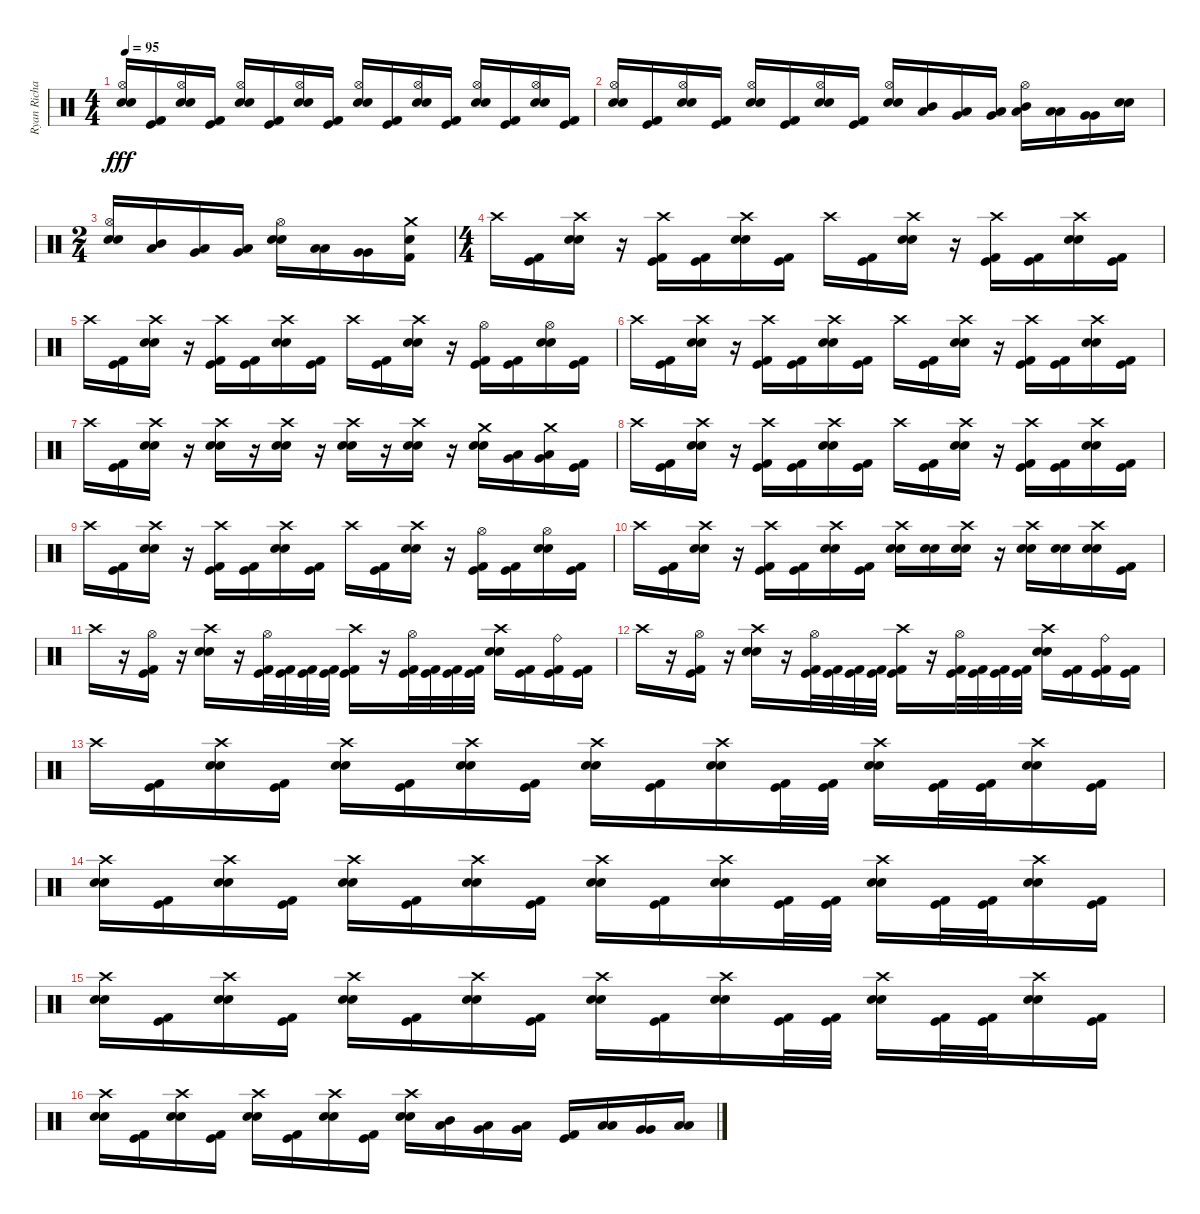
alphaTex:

\track ("Ryan Richards" "Ryan Richa") {instrument percussion}
\staff {score}
\articulation defaults
\ts (4 4)
\tempo 95
\clef neutral
\ks c
("Snare (hit) 2" "Hi-Hat (open)" "Electric Snare (hit)").16{dy fff} ("Kick (hit)" "Kick (hit) 2").16 ("Snare (hit) 2" "Hi-Hat (open)" "Electric Snare (hit)").16 ("Kick (hit)" "Kick (hit) 2").16 ("Snare (hit) 2" "Hi-Hat (open)" "Electric Snare (hit)").16 ("Kick (hit)" "Kick (hit) 2").16 ("Snare (hit) 2" "Hi-Hat (open)" "Electric Snare (hit)").16 ("Kick (hit)" "Kick (hit) 2").16 ("Snare (hit) 2" "Hi-Hat (open)" "Electric Snare (hit)").16 ("Kick (hit)" "Kick (hit) 2").16 ("Snare (hit) 2" "Hi-Hat (open)" "Electric Snare (hit)").16 ("Kick (hit)" "Kick (hit) 2").16 ("Snare (hit) 2" "Hi-Hat (open)" "Electric Snare (hit)").16 ("Kick (hit)" "Kick (hit) 2").16 ("Snare (hit) 2" "Hi-Hat (open)" "Electric Snare (hit)").16 ("Kick (hit)" "Kick (hit) 2").16 |
("Snare (hit) 2" "Hi-Hat (open)" "Electric Snare (hit)").16 ("Kick (hit)" "Kick (hit) 2").16 ("Snare (hit) 2" "Hi-Hat (open)" "Electric Snare (hit)").16 ("Kick (hit)" "Kick (hit) 2").16 ("Snare (hit) 2" "Hi-Hat (open)" "Electric Snare (hit)").16 ("Kick (hit)" "Kick (hit) 2").16 ("Snare (hit) 2" "Hi-Hat (open)" "Electric Snare (hit)").16 ("Kick (hit)" "Kick (hit) 2").16 ("Snare (hit) 2" "Hi-Hat (open)" "Electric Snare (hit)").16 ("Mid Tom (hit)" "Low Tom (hit)").16 ("Low Tom (hit)" "Very Low Tom (hit)").16 ("Very Low Tom (hit)" "Low Floor Tom (hit)").16 ("Mid Tom (hit)" "Hi-Hat (open)" "Low Tom (hit)").16 ("Low Tom (hit)" "Low Tom (hit)").16 ("Very Low Tom (hit)" "Very Low Tom (hit)").16 ("Snare (hit) 2" "Electric Snare (hit)").16 |
\ts (2 4)
("Snare (hit) 2" "Hi-Hat (open)" "Electric Snare (hit)").16 ("Mid Tom (hit)" "Low Tom (hit)").16 ("Low Tom (hit)" "Very Low Tom (hit)").16 ("Very Low Tom (hit)" "Low Floor Tom (hit)").16 ("Snare (hit) 2" "Hi-Hat (open)" "Electric Snare (hit)").16 ("Low Tom (hit)" "Low Tom (hit)").16 ("Very Low Tom (hit)" "Very Low Tom (hit)").16 ("Snare (hit) 2" "Crash medium (hit)" "Kick (hit) 2").16 |
\ts (4 4)
"Crash high (hit)".16 ("Kick (hit)" "Kick (hit) 2").16 ("Snare (hit) 2" "Crash high (hit)" "Electric Snare (hit)").16 r.16 ("Kick (hit)" "Crash high (hit)" "Kick (hit) 2").16 ("Kick (hit)" "Kick (hit) 2").16 ("Snare (hit) 2" "Crash high (hit)" "Electric Snare (hit)").16 ("Kick (hit)" "Kick (hit) 2").16 "Crash high (hit)".16 ("Kick (hit)" "Kick (hit) 2").16 ("Snare (hit) 2" "Crash high (hit)" "Electric Snare (hit)").16 r.16 ("Kick (hit)" "Crash high (hit)" "Kick (hit) 2").16 ("Kick (hit)" "Kick (hit) 2").16 ("Snare (hit) 2" "Crash high (hit)" "Electric Snare (hit)").16 ("Kick (hit)" "Kick (hit) 2").16 |
"Crash high (hit)".16 ("Kick (hit)" "Kick (hit) 2").16 ("Snare (hit) 2" "Crash high (hit)" "Electric Snare (hit)").16 r.16 ("Kick (hit)" "Crash high (hit)" "Kick (hit) 2").16 ("Kick (hit)" "Kick (hit) 2").16 ("Snare (hit) 2" "Crash high (hit)" "Electric Snare (hit)").16 ("Kick (hit)" "Kick (hit) 2").16 "Crash high (hit)".16 ("Kick (hit)" "Kick (hit) 2").16 ("Snare (hit) 2" "Crash high (hit)" "Electric Snare (hit)").16 r.16 ("Kick (hit)" "Hi-Hat (open)" "Kick (hit) 2").16 ("Kick (hit)" "Kick (hit) 2").16 ("Snare (hit) 2" "Hi-Hat (open)" "Electric Snare (hit)").16 ("Kick (hit)" "Kick (hit) 2").16 |
"Crash high (hit)".16 ("Kick (hit)" "Kick (hit) 2").16 ("Snare (hit) 2" "Crash high (hit)" "Electric Snare (hit)").16 r.16 ("Kick (hit)" "Crash high (hit)" "Kick (hit) 2").16 ("Kick (hit)" "Kick (hit) 2").16 ("Snare (hit) 2" "Crash high (hit)" "Electric Snare (hit)").16 ("Kick (hit)" "Kick (hit) 2").16 "Crash high (hit)".16 ("Kick (hit)" "Kick (hit) 2").16 ("Snare (hit) 2" "Crash high (hit)" "Electric Snare (hit)").16 r.16 ("Kick (hit)" "Crash high (hit)" "Kick (hit) 2").16 ("Kick (hit)" "Kick (hit) 2").16 ("Snare (hit) 2" "Crash high (hit)" "Electric Snare (hit)").16 ("Kick (hit)" "Kick (hit) 2").16 |
"Crash high (hit)".16 ("Kick (hit)" "Kick (hit) 2").16 ("Snare (hit) 2" "Crash high (hit)" "Electric Snare (hit)").16 r.16 ("Snare (hit) 2" "Crash high (hit)" "Electric Snare (hit)").16 r.16 ("Snare (hit) 2" "Crash high (hit)" "Electric Snare (hit)").16 r.16 ("Snare (hit) 2" "Crash high (hit)" "Electric Snare (hit)").16 r.16 ("Snare (hit) 2" "Crash high (hit)" "Electric Snare (hit)").16 r.16 ("Snare (hit) 2" "Crash medium (hit)" "Electric Snare (hit)").16 ("Low Tom (hit)" "Very Low Tom (hit)").16 ("Very Low Tom (hit)" "Crash medium (hit)" "Low Floor Tom (hit)").16 ("Kick (hit)" "Kick (hit) 2").16 |
"Crash high (hit)".16 ("Kick (hit)" "Kick (hit) 2").16 ("Snare (hit) 2" "Crash high (hit)" "Electric Snare (hit)").16 r.16 ("Kick (hit)" "Crash high (hit)" "Kick (hit) 2").16 ("Kick (hit)" "Kick (hit) 2").16 ("Snare (hit) 2" "Crash high (hit)" "Electric Snare (hit)").16 ("Kick (hit)" "Kick (hit) 2").16 "Crash high (hit)".16 ("Kick (hit)" "Kick (hit) 2").16 ("Snare (hit) 2" "Crash high (hit)" "Electric Snare (hit)").16 r.16 ("Kick (hit)" "Crash high (hit)" "Kick (hit) 2").16 ("Kick (hit)" "Kick (hit) 2").16 ("Snare (hit) 2" "Crash high (hit)" "Electric Snare (hit)").16 ("Kick (hit)" "Kick (hit) 2").16 |
"Crash high (hit)".16 ("Kick (hit)" "Kick (hit) 2").16 ("Snare (hit) 2" "Crash high (hit)" "Electric Snare (hit)").16 r.16 ("Kick (hit)" "Crash high (hit)" "Kick (hit) 2").16 ("Kick (hit)" "Kick (hit) 2").16 ("Snare (hit) 2" "Crash high (hit)" "Electric Snare (hit)").16 ("Kick (hit)" "Kick (hit) 2").16 "Crash high (hit)".16 ("Kick (hit)" "Kick (hit) 2").16 ("Snare (hit) 2" "Crash high (hit)" "Electric Snare (hit)").16 r.16 ("Kick (hit)" "Hi-Hat (open)" "Kick (hit) 2").16 ("Kick (hit)" "Kick (hit) 2").16 ("Snare (hit) 2" "Hi-Hat (open)" "Electric Snare (hit)").16 ("Kick (hit)" "Kick (hit) 2").16 |
"Crash high (hit)".16 ("Kick (hit)" "Kick (hit) 2").16 ("Snare (hit) 2" "Crash high (hit)" "Electric Snare (hit)").16 r.16 ("Kick (hit)" "Crash high (hit)" "Kick (hit) 2").16 ("Kick (hit)" "Kick (hit) 2").16 ("Snare (hit) 2" "Crash high (hit)" "Electric Snare (hit)").16 ("Kick (hit)" "Kick (hit) 2").16 ("Snare (hit) 2" "Crash high (hit)" "Electric Snare (hit)").16 ("Snare (hit) 2" "Electric Snare (hit)").16 ("Snare (hit) 2" "Crash high (hit)" "Electric Snare (hit)").16 r.16 ("Snare (hit) 2" "Crash high (hit)" "Electric Snare (hit)").16 ("Snare (hit) 2" "Electric Snare (hit)").16 ("Snare (hit) 2" "Crash high (hit)" "Electric Snare (hit)").16 ("Kick (hit)" "Kick (hit) 2").16 |
"Crash high (hit)".16 r.16 ("Kick (hit)" "Hi-Hat (open)" "Kick (hit) 2").16 r.16 ("Snare (hit) 2" "Crash high (hit)" "Electric Snare (hit)").16 r.16 ("Kick (hit)" "Hi-Hat (open)" "Kick (hit) 2").32 ("Kick (hit)" "Kick (hit) 2").32 ("Kick (hit)" "Kick (hit) 2").32 ("Kick (hit)" "Kick (hit) 2").32 ("Kick (hit)" "Crash high (hit)" "Kick (hit) 2").16 r.16 ("Kick (hit)" "Hi-Hat (open)" "Kick (hit) 2").32 ("Kick (hit)" "Kick (hit) 2").32 ("Kick (hit)" "Kick (hit) 2").32 ("Kick (hit)" "Kick (hit) 2").32 ("Snare (hit) 2" "Crash high (hit)" "Electric Snare (hit)").16 ("Kick (hit)" "Kick (hit) 2").16 ("Kick (hit)" "Ride (bell)" "Kick (hit) 2").16 ("Kick (hit)" "Kick (hit) 2").16 |
"Crash high (hit)".16 r.16 ("Kick (hit)" "Hi-Hat (open)" "Kick (hit) 2").16 r.16 ("Snare (hit) 2" "Crash high (hit)" "Electric Snare (hit)").16 r.16 ("Kick (hit)" "Hi-Hat (open)" "Kick (hit) 2").32 ("Kick (hit)" "Kick (hit) 2").32 ("Kick (hit)" "Kick (hit) 2").32 ("Kick (hit)" "Kick (hit) 2").32 ("Kick (hit)" "Crash high (hit)" "Kick (hit) 2").16 r.16 ("Kick (hit)" "Hi-Hat (open)" "Kick (hit) 2").32 ("Kick (hit)" "Kick (hit) 2").32 ("Kick (hit)" "Kick (hit) 2").32 ("Kick (hit)" "Kick (hit) 2").32 ("Snare (hit) 2" "Crash high (hit)" "Electric Snare (hit)").16 ("Kick (hit)" "Kick (hit) 2").16 ("Kick (hit)" "Ride (bell)" "Kick (hit) 2").16 ("Kick (hit)" "Kick (hit) 2").16 |
"Crash high (hit)".16 ("Kick (hit)" "Kick (hit) 2").16 ("Snare (hit) 2" "Crash high (hit)" "Electric Snare (hit)").16 ("Kick (hit)" "Kick (hit) 2").16 ("Snare (hit) 2" "Crash high (hit)" "Electric Snare (hit)").16 ("Kick (hit)" "Kick (hit) 2").16 ("Snare (hit) 2" "Crash high (hit)" "Electric Snare (hit)").16 ("Kick (hit)" "Kick (hit) 2").16 ("Snare (hit) 2" "Crash high (hit)" "Electric Snare (hit)").16 ("Kick (hit)" "Kick (hit) 2").16 ("Snare (hit) 2" "Crash high (hit)" "Electric Snare (hit)").16 ("Kick (hit)" "Kick (hit) 2").32 ("Kick (hit)" "Kick (hit) 2").32 ("Snare (hit) 2" "Crash high (hit)" "Electric Snare (hit)").16 ("Kick (hit)" "Kick (hit) 2").32 ("Kick (hit)" "Kick (hit) 2").32 ("Snare (hit) 2" "Crash high (hit)" "Electric Snare (hit)").16 ("Kick (hit)" "Kick (hit) 2").16 |
("Snare (hit) 2" "Crash high (hit)" "Electric Snare (hit)").16 ("Kick (hit)" "Kick (hit) 2").16 ("Snare (hit) 2" "Crash high (hit)" "Electric Snare (hit)").16 ("Kick (hit)" "Kick (hit) 2").16 ("Snare (hit) 2" "Crash high (hit)" "Electric Snare (hit)").16 ("Kick (hit)" "Kick (hit) 2").16 ("Snare (hit) 2" "Crash high (hit)" "Electric Snare (hit)").16 ("Kick (hit)" "Kick (hit) 2").16 ("Snare (hit) 2" "Crash high (hit)" "Electric Snare (hit)").16 ("Kick (hit)" "Kick (hit) 2").16 ("Snare (hit) 2" "Crash high (hit)" "Electric Snare (hit)").16 ("Kick (hit)" "Kick (hit) 2").32 ("Kick (hit)" "Kick (hit) 2").32 ("Snare (hit) 2" "Crash high (hit)" "Electric Snare (hit)").16 ("Kick (hit)" "Kick (hit) 2").32 ("Kick (hit)" "Kick (hit) 2").32 ("Snare (hit) 2" "Crash high (hit)" "Electric Snare (hit)").16 ("Kick (hit)" "Kick (hit) 2").16 |
("Snare (hit) 2" "Crash high (hit)" "Electric Snare (hit)").16 ("Kick (hit)" "Kick (hit) 2").16 ("Snare (hit) 2" "Crash high (hit)" "Electric Snare (hit)").16 ("Kick (hit)" "Kick (hit) 2").16 ("Snare (hit) 2" "Crash high (hit)" "Electric Snare (hit)").16 ("Kick (hit)" "Kick (hit) 2").16 ("Snare (hit) 2" "Crash high (hit)" "Electric Snare (hit)").16 ("Kick (hit)" "Kick (hit) 2").16 ("Snare (hit) 2" "Crash high (hit)" "Electric Snare (hit)").16 ("Kick (hit)" "Kick (hit) 2").16 ("Snare (hit) 2" "Crash high (hit)" "Electric Snare (hit)").16 ("Kick (hit)" "Kick (hit) 2").32 ("Kick (hit)" "Kick (hit) 2").32 ("Snare (hit) 2" "Crash high (hit)" "Electric Snare (hit)").16 ("Kick (hit)" "Kick (hit) 2").32 ("Kick (hit)" "Kick (hit) 2").32 ("Snare (hit) 2" "Crash high (hit)" "Electric Snare (hit)").16 ("Kick (hit)" "Kick (hit) 2").16 |
("Snare (hit) 2" "Crash high (hit)" "Electric Snare (hit)").16 ("Kick (hit)" "Kick (hit) 2").16 ("Snare (hit) 2" "Crash high (hit)" "Electric Snare (hit)").16 ("Kick (hit)" "Kick (hit) 2").16 ("Snare (hit) 2" "Crash high (hit)" "Electric Snare (hit)").16 ("Kick (hit)" "Kick (hit) 2").16 ("Snare (hit) 2" "Crash high (hit)" "Electric Snare (hit)").16 ("Kick (hit)" "Kick (hit) 2").16 ("Snare (hit) 2" "Crash high (hit)" "Electric Snare (hit)").16 ("Mid Tom (hit)" "Low Tom (hit)").16 ("Low Tom (hit)" "Very Low Tom (hit)").16 ("Very Low Tom (hit)" "Low Floor Tom (hit)").16 ("Kick (hit)" "Kick (hit) 2").16 ("Low Tom (hit)" "Low Tom (hit)").16 ("Very Low Tom (hit)" "Very Low Tom (hit)").16 ("Low Floor Tom (hit)" "Low Floor Tom (hit)").16
